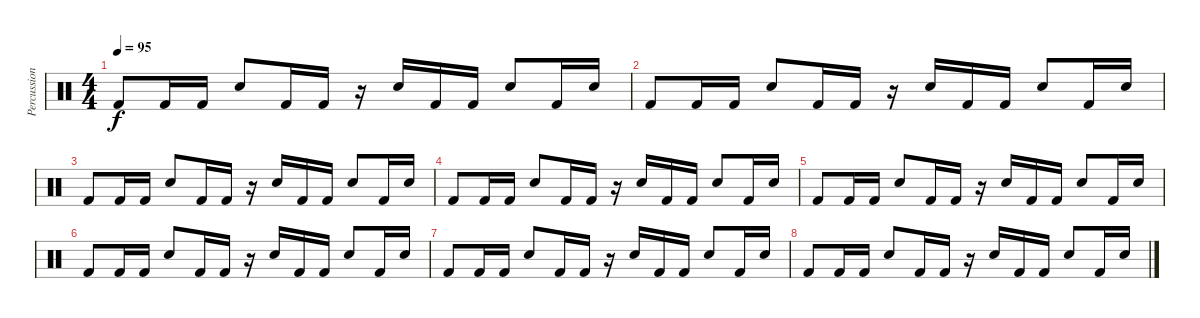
\track ("Percussion" "Percussion") {instrument percussion}
\staff {score}
\articulation defaults
\ts (4 4)
\tempo 95
\clef neutral
\ks c "Kick (hit) 2".8{dy f} "Kick (hit) 2".16 "Kick (hit) 2".16 "Snare (hit) 2".8 "Kick (hit) 2".16 "Kick (hit) 2".16
r.16 "Snare (hit) 2".16 "Kick (hit) 2".16 "Kick (hit) 2".16 "Snare (hit) 2".8 "Kick (hit) 2".16 "Snare (hit) 2".16 |
"Kick (hit) 2".8 "Kick (hit) 2".16 "Kick (hit) 2".16 "Snare (hit) 2".8 "Kick (hit) 2".16 "Kick (hit) 2".16 r.16 "Snare (hit) 2".16 "Kick (hit) 2".16 "Kick (hit) 2".16 "Snare (hit) 2".8 "Kick (hit) 2".16 "Snare (hit) 2".16 |
"Kick (hit) 2".8 "Kick (hit) 2".16 "Kick (hit) 2".16 "Snare (hit) 2".8 "Kick (hit) 2".16 "Kick (hit) 2".16 r.16 "Snare (hit) 2".16 "Kick (hit) 2".16 "Kick (hit) 2".16 "Snare (hit) 2".8 "Kick (hit) 2".16 "Snare (hit) 2".16 |
"Kick (hit) 2".8 "Kick (hit) 2".16 "Kick (hit) 2".16 "Snare (hit) 2".8 "Kick (hit) 2".16 "Kick (hit) 2".16 r.16 "Snare (hit) 2".16 "Kick (hit) 2".16 "Kick (hit) 2".16 "Snare (hit) 2".8 "Kick (hit) 2".16 "Snare (hit) 2".16 |
"Kick (hit) 2".8 "Kick (hit) 2".16 "Kick (hit) 2".16 "Snare (hit) 2".8 "Kick (hit) 2".16 "Kick (hit) 2".16 r.16 "Snare (hit) 2".16 "Kick (hit) 2".16 "Kick (hit) 2".16 "Snare (hit) 2".8 "Kick (hit) 2".16 "Snare (hit) 2".16 |
"Kick (hit) 2".8 "Kick (hit) 2".16 "Kick (hit) 2".16 "Snare (hit) 2".8 "Kick (hit) 2".16 "Kick (hit) 2".16 r.16 "Snare (hit) 2".16 "Kick (hit) 2".16 "Kick (hit) 2".16 "Snare (hit) 2".8 "Kick (hit) 2".16 "Snare (hit) 2".16 |
"Kick (hit) 2".8 "Kick (hit) 2".16 "Kick (hit) 2".16 "Snare (hit) 2".8 "Kick (hit) 2".16 "Kick (hit) 2".16 r.16 "Snare (hit) 2".16 "Kick (hit) 2".16 "Kick (hit) 2".16 "Snare (hit) 2".8 "Kick (hit) 2".16 "Snare (hit) 2".16 |
"Kick (hit) 2".8 "Kick (hit) 2".16 "Kick (hit) 2".16 "Snare (hit) 2".8 "Kick (hit) 2".16 "Kick (hit) 2".16 r.16 "Snare (hit) 2".16 "Kick (hit) 2".16 "Kick (hit) 2".16 "Snare (hit) 2".8 "Kick (hit) 2".16 "Snare (hit) 2".16
